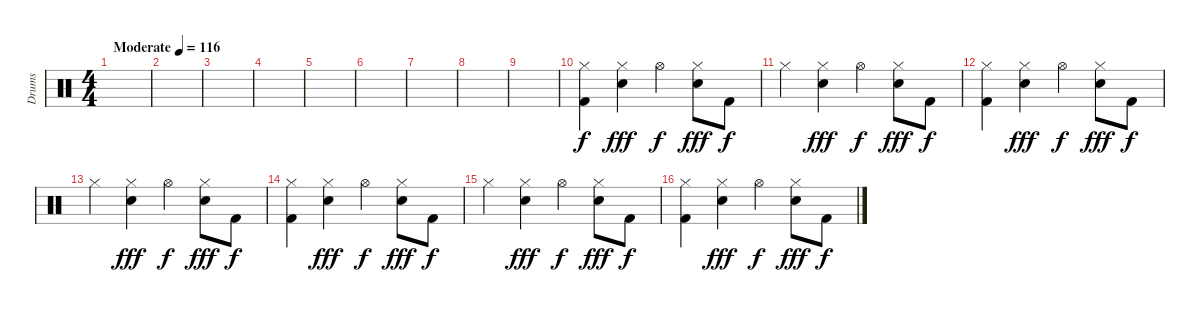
\track ("Drums" "Drums") {instrument percussion}
\staff {score}
\articulation defaults
\ts (4 4)
\tempo (116 "Moderate")
\clef neutral
\ks c
|
|
|
|
|
|
|
|
|
("Hi-Hat (closed)" "Kick (hit) 2").4 ("Hi-Hat (closed)" "Snare (hit) 2").4{dy fff} "Hi-Hat (open)".4{dy f} ("Hi-Hat (closed)" "Snare (hit) 2").8{dy fff} "Kick (hit) 2".8{dy f} |
"Hi-Hat (closed)".4 ("Hi-Hat (closed)" "Snare (hit) 2").4{dy fff} "Hi-Hat (open)".4{dy f} ("Hi-Hat (closed)" "Snare (hit) 2").8{dy fff} "Kick (hit) 2".8{dy f} |
("Hi-Hat (closed)" "Kick (hit) 2").4 ("Hi-Hat (closed)" "Snare (hit) 2").4{dy fff} "Hi-Hat (open)".4{dy f} ("Hi-Hat (closed)" "Snare (hit) 2").8{dy fff} "Kick (hit) 2".8{dy f} |
"Hi-Hat (closed)".4 ("Hi-Hat (closed)" "Snare (hit) 2").4{dy fff} "Hi-Hat (open)".4{dy f} ("Hi-Hat (closed)" "Snare (hit) 2").8{dy fff} "Kick (hit) 2".8{dy f} |
("Hi-Hat (closed)" "Kick (hit) 2").4 ("Hi-Hat (closed)" "Snare (hit) 2").4{dy fff} "Hi-Hat (open)".4{dy f} ("Hi-Hat (closed)" "Snare (hit) 2").8{dy fff} "Kick (hit) 2".8{dy f} |
"Hi-Hat (closed)".4 ("Hi-Hat (closed)" "Snare (hit) 2").4{dy fff} "Hi-Hat (open)".4{dy f} ("Hi-Hat (closed)" "Snare (hit) 2").8{dy fff} "Kick (hit) 2".8{dy f} |
("Hi-Hat (closed)" "Kick (hit) 2").4 ("Hi-Hat (closed)" "Snare (hit) 2").4{dy fff} "Hi-Hat (open)".4{dy f} ("Hi-Hat (closed)" "Snare (hit) 2").8{dy fff} "Kick (hit) 2".8{dy f}
